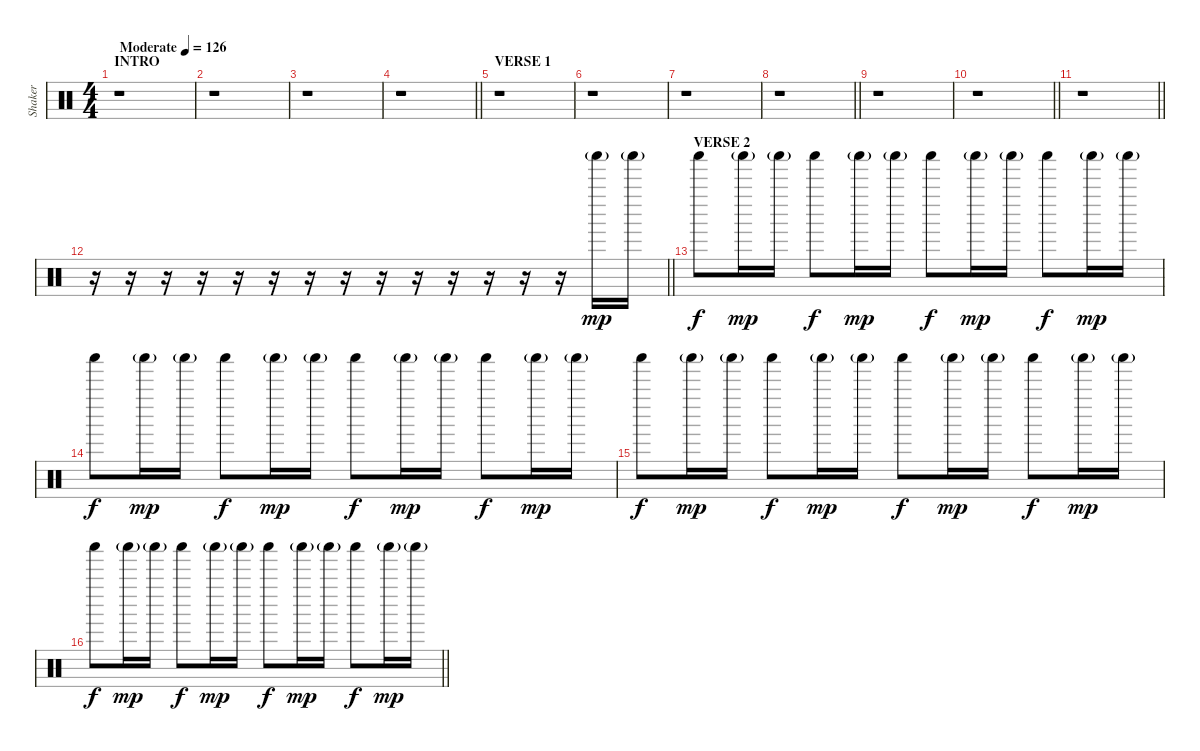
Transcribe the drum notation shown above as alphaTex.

\track ("Shaker" "Shaker") {instrument percussion}
\staff {score}
\articulation defaults
\ts (4 4)
\section ("" "INTRO")
\tempo (126 "Moderate")
\clef neutral
\ks c
r.1{dy mp} |
r.1 |
r.1 |
\barLineRight lightlight
r.1 |
\section ("" "VERSE 1")
r.1 |
r.1 |
r.1 |
\barLineRight lightlight
r.1 |
r.1 |
\barLineRight lightlight
r.1 |
\barLineRight lightlight
r.1 |
\barLineRight lightlight
r.16 r.16 r.16 r.16 r.16 r.16 r.16 r.16 r.16 r.16 r.16 r.16 r.16 r.16 "Shaker (hit)"{g}.16 "Shaker (hit)"{g}.16 |
\section ("" "VERSE 2")
"Shaker (hit)".8{dy f} "Shaker (hit)"{g}.16{dy mp} "Shaker (hit)"{g}.16 "Shaker (hit)".8{dy f} "Shaker (hit)"{g}.16{dy mp} "Shaker (hit)"{g}.16 "Shaker (hit)".8{dy f} "Shaker (hit)"{g}.16{dy mp} "Shaker (hit)"{g}.16 "Shaker (hit)".8{dy f} "Shaker (hit)"{g}.16{dy mp} "Shaker (hit)"{g}.16 |
"Shaker (hit)".8{dy f} "Shaker (hit)"{g}.16{dy mp} "Shaker (hit)"{g}.16 "Shaker (hit)".8{dy f} "Shaker (hit)"{g}.16{dy mp} "Shaker (hit)"{g}.16 "Shaker (hit)".8{dy f} "Shaker (hit)"{g}.16{dy mp} "Shaker (hit)"{g}.16 "Shaker (hit)".8{dy f} "Shaker (hit)"{g}.16{dy mp} "Shaker (hit)"{g}.16 |
"Shaker (hit)".8{dy f} "Shaker (hit)"{g}.16{dy mp} "Shaker (hit)"{g}.16 "Shaker (hit)".8{dy f} "Shaker (hit)"{g}.16{dy mp} "Shaker (hit)"{g}.16 "Shaker (hit)".8{dy f} "Shaker (hit)"{g}.16{dy mp} "Shaker (hit)"{g}.16 "Shaker (hit)".8{dy f} "Shaker (hit)"{g}.16{dy mp} "Shaker (hit)"{g}.16 |
\barLineRight lightlight "Shaker (hit)".8{dy f} "Shaker (hit)"{g}.16{dy mp} "Shaker (hit)"{g}.16 "Shaker (hit)".8{dy f} "Shaker (hit)"{g}.16{dy mp} "Shaker (hit)"{g}.16 "Shaker (hit)".8{dy f} "Shaker (hit)"{g}.16{dy mp} "Shaker (hit)"{g}.16 "Shaker (hit)".8{dy f} "Shaker (hit)"{g}.16{dy mp} "Shaker (hit)"{g}.16
